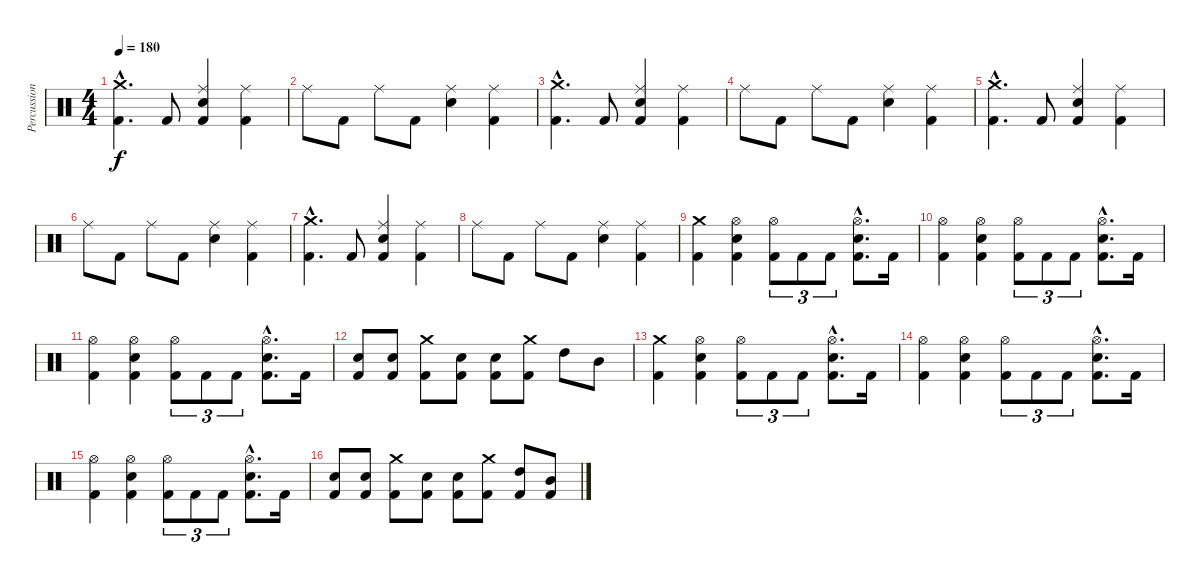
\track ("Percussion" "Percussion") {instrument percussion}
\staff {score}
\articulation defaults
\ts (4 4)
\tempo 180
\clef neutral
\ks c
("Crash medium (hit)"{hac} "Kick (hit) 2"{hac}).4{d dy f} "Kick (hit) 2".8 ("Ride (middle)" "Electric Snare (hit)" "Kick (hit) 2").4 ("Ride (middle)" "Kick (hit) 2").4 |
"Ride (middle)".8 "Kick (hit) 2".8 "Ride (middle)".8 "Kick (hit) 2".8 ("Ride (middle)" "Electric Snare (hit)").4 ("Ride (middle)" "Kick (hit) 2").4 |
("Crash medium (hit)"{hac} "Kick (hit) 2"{hac}).4{d} "Kick (hit) 2".8 ("Ride (middle)" "Electric Snare (hit)" "Kick (hit) 2").4 ("Ride (middle)" "Kick (hit) 2").4 |
"Ride (middle)".8 "Kick (hit) 2".8 "Ride (middle)".8 "Kick (hit) 2".8 ("Ride (middle)" "Electric Snare (hit)").4 ("Ride (middle)" "Kick (hit) 2").4 |
("Crash medium (hit)"{hac} "Kick (hit) 2"{hac}).4{d} "Kick (hit) 2".8 ("Ride (middle)" "Electric Snare (hit)" "Kick (hit) 2").4 ("Ride (middle)" "Kick (hit) 2").4 |
"Ride (middle)".8 "Kick (hit) 2".8 "Ride (middle)".8 "Kick (hit) 2".8 ("Ride (middle)" "Electric Snare (hit)").4 ("Ride (middle)" "Kick (hit) 2").4 |
("Crash medium (hit)"{hac} "Kick (hit) 2"{hac}).4{d} "Kick (hit) 2".8 ("Ride (middle)" "Electric Snare (hit)" "Kick (hit) 2").4 ("Ride (middle)" "Kick (hit) 2").4 |
"Ride (middle)".8 "Kick (hit) 2".8 "Ride (middle)".8 "Kick (hit) 2".8 ("Ride (middle)" "Electric Snare (hit)").4 ("Ride (middle)" "Kick (hit) 2").4 |
("Crash medium (hit)" "Kick (hit) 2").4 ("Hi-Hat (open)" "Electric Snare (hit)" "Kick (hit) 2").4 ("Hi-Hat (open)" "Kick (hit) 2").8{tu (3 2)} "Kick (hit) 2".8{tu (3 2)} "Kick (hit) 2".8{tu (3 2)} ("Hi-Hat (open)"{hac} "Electric Snare (hit)"{hac} "Kick (hit) 2"{hac}).8{d} "Kick (hit) 2".16 |
("Hi-Hat (open)" "Kick (hit) 2").4 ("Hi-Hat (open)" "Electric Snare (hit)" "Kick (hit) 2").4 ("Hi-Hat (open)" "Kick (hit) 2").8{tu (3 2)} "Kick (hit) 2".8{tu (3 2)} "Kick (hit) 2".8{tu (3 2)} ("Hi-Hat (open)"{hac} "Electric Snare (hit)"{hac} "Kick (hit) 2"{hac}).8{d} "Kick (hit) 2".16 |
("Hi-Hat (open)" "Kick (hit) 2").4 ("Hi-Hat (open)" "Electric Snare (hit)" "Kick (hit) 2").4 ("Hi-Hat (open)" "Kick (hit) 2").8{tu (3 2)} "Kick (hit) 2".8{tu (3 2)} "Kick (hit) 2".8{tu (3 2)} ("Hi-Hat (open)"{hac} "Electric Snare (hit)"{hac} "Kick (hit) 2"{hac}).8{d} "Kick (hit) 2".16 |
("Electric Snare (hit)" "Kick (hit) 2").8 ("Electric Snare (hit)" "Kick (hit) 2").8 ("Crash medium (hit)" "Kick (hit) 2").8 ("Electric Snare (hit)" "Kick (hit) 2").8 ("Electric Snare (hit)" "Kick (hit) 2").8 ("Crash medium (hit)" "Kick (hit) 2").8 "High Tom (hit)".8 "Mid Tom (hit)".8 |
("Crash medium (hit)" "Kick (hit) 2").4 ("Hi-Hat (open)" "Electric Snare (hit)" "Kick (hit) 2").4 ("Hi-Hat (open)" "Kick (hit) 2").8{tu (3 2)} "Kick (hit) 2".8{tu (3 2)} "Kick (hit) 2".8{tu (3 2)} ("Hi-Hat (open)"{hac} "Electric Snare (hit)"{hac} "Kick (hit) 2"{hac}).8{d} "Kick (hit) 2".16 |
("Hi-Hat (open)" "Kick (hit) 2").4 ("Hi-Hat (open)" "Electric Snare (hit)" "Kick (hit) 2").4 ("Hi-Hat (open)" "Kick (hit) 2").8{tu (3 2)} "Kick (hit) 2".8{tu (3 2)} "Kick (hit) 2".8{tu (3 2)} ("Hi-Hat (open)"{hac} "Electric Snare (hit)"{hac} "Kick (hit) 2"{hac}).8{d} "Kick (hit) 2".16 |
("Hi-Hat (open)" "Kick (hit) 2").4 ("Hi-Hat (open)" "Electric Snare (hit)" "Kick (hit) 2").4 ("Hi-Hat (open)" "Kick (hit) 2").8{tu (3 2)} "Kick (hit) 2".8{tu (3 2)} "Kick (hit) 2".8{tu (3 2)} ("Hi-Hat (open)"{hac} "Electric Snare (hit)"{hac} "Kick (hit) 2"{hac}).8{d} "Kick (hit) 2".16 |
("Electric Snare (hit)" "Kick (hit) 2").8 ("Electric Snare (hit)" "Kick (hit) 2").8 ("Crash medium (hit)" "Kick (hit) 2").8 ("Electric Snare (hit)" "Kick (hit) 2").8 ("Electric Snare (hit)" "Kick (hit) 2").8 ("Crash medium (hit)" "Kick (hit) 2").8 ("High Tom (hit)" "Kick (hit) 2").8 ("Mid Tom (hit)" "Kick (hit) 2").8
